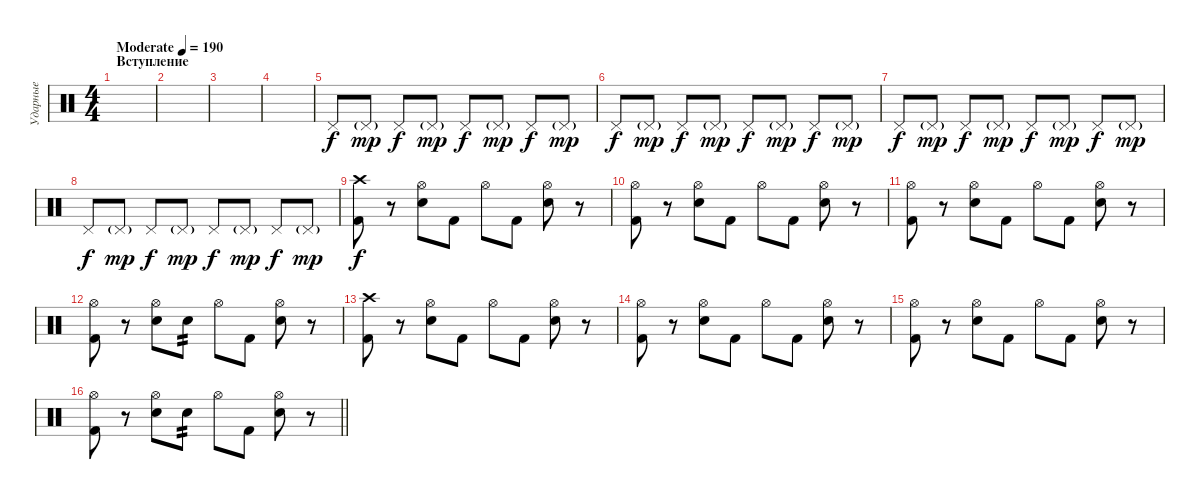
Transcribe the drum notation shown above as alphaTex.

\track ("Ударные" "Ударные") {instrument percussion}
\staff {score}
\articulation defaults
\ts (4 4)
\section ("" "Вступление")
\tempo (190 "Moderate")
\clef neutral
\ks c
|
|
|
|
"Pedal Hi-Hat (hit)".8 "Pedal Hi-Hat (hit)"{g}.8{dy mp} "Pedal Hi-Hat (hit)".8{dy f} "Pedal Hi-Hat (hit)"{g}.8{dy mp} "Pedal Hi-Hat (hit)".8{dy f} "Pedal Hi-Hat (hit)"{g}.8{dy mp} "Pedal Hi-Hat (hit)".8{dy f} "Pedal Hi-Hat (hit)"{g}.8{dy mp} |
"Pedal Hi-Hat (hit)".8{dy f} "Pedal Hi-Hat (hit)"{g}.8{dy mp} "Pedal Hi-Hat (hit)".8{dy f} "Pedal Hi-Hat (hit)"{g}.8{dy mp} "Pedal Hi-Hat (hit)".8{dy f} "Pedal Hi-Hat (hit)"{g}.8{dy mp} "Pedal Hi-Hat (hit)".8{dy f} "Pedal Hi-Hat (hit)"{g}.8{dy mp} |
"Pedal Hi-Hat (hit)".8{dy f} "Pedal Hi-Hat (hit)"{g}.8{dy mp} "Pedal Hi-Hat (hit)".8{dy f} "Pedal Hi-Hat (hit)"{g}.8{dy mp} "Pedal Hi-Hat (hit)".8{dy f} "Pedal Hi-Hat (hit)"{g}.8{dy mp} "Pedal Hi-Hat (hit)".8{dy f} "Pedal Hi-Hat (hit)"{g}.8{dy mp} |
"Pedal Hi-Hat (hit)".8{dy f} "Pedal Hi-Hat (hit)"{g}.8{dy mp} "Pedal Hi-Hat (hit)".8{dy f} "Pedal Hi-Hat (hit)"{g}.8{dy mp} "Pedal Hi-Hat (hit)".8{dy f} "Pedal Hi-Hat (hit)"{g}.8{dy mp} "Pedal Hi-Hat (hit)".8{dy f} "Pedal Hi-Hat (hit)"{g}.8{dy mp} |
("Crash high (hit)" "Kick (hit) 2").8{dy f} r.8 ("Hi-Hat (open)" "Electric Snare (hit)").8 "Kick (hit) 2".8 "Hi-Hat (open)".8 "Kick (hit) 2".8 ("Hi-Hat (open)" "Electric Snare (hit)").8 r.8 |
("Hi-Hat (open)" "Kick (hit) 2").8 r.8 ("Hi-Hat (open)" "Electric Snare (hit)").8 "Kick (hit) 2".8 "Hi-Hat (open)".8 "Kick (hit) 2".8 ("Hi-Hat (open)" "Electric Snare (hit)").8 r.8 |
("Hi-Hat (open)" "Kick (hit) 2").8 r.8 ("Hi-Hat (open)" "Electric Snare (hit)").8 "Kick (hit) 2".8 "Hi-Hat (open)".8 "Kick (hit) 2".8 ("Hi-Hat (open)" "Electric Snare (hit)").8 r.8 |
("Hi-Hat (open)" "Kick (hit) 2").8 r.8 ("Hi-Hat (open)" "Electric Snare (hit)").8 "Electric Snare (hit)".8{tp 2} "Hi-Hat (open)".8 "Kick (hit) 2".8 ("Hi-Hat (open)" "Electric Snare (hit)").8 r.8 |
("Crash high (hit)" "Kick (hit) 2").8 r.8 ("Hi-Hat (open)" "Electric Snare (hit)").8 "Kick (hit) 2".8 "Hi-Hat (open)".8 "Kick (hit) 2".8 ("Hi-Hat (open)" "Electric Snare (hit)").8 r.8 |
("Hi-Hat (open)" "Kick (hit) 2").8 r.8 ("Hi-Hat (open)" "Electric Snare (hit)").8 "Kick (hit) 2".8 "Hi-Hat (open)".8 "Kick (hit) 2".8 ("Hi-Hat (open)" "Electric Snare (hit)").8 r.8 |
("Hi-Hat (open)" "Kick (hit) 2").8 r.8 ("Hi-Hat (open)" "Electric Snare (hit)").8 "Kick (hit) 2".8 "Hi-Hat (open)".8 "Kick (hit) 2".8 ("Hi-Hat (open)" "Electric Snare (hit)").8 r.8 |
\barLineRight lightlight
("Hi-Hat (open)" "Kick (hit) 2").8 r.8 ("Hi-Hat (open)" "Electric Snare (hit)").8 "Electric Snare (hit)".8{tp 2} "Hi-Hat (open)".8 "Kick (hit) 2".8 ("Hi-Hat (open)" "Electric Snare (hit)").8 r.8
